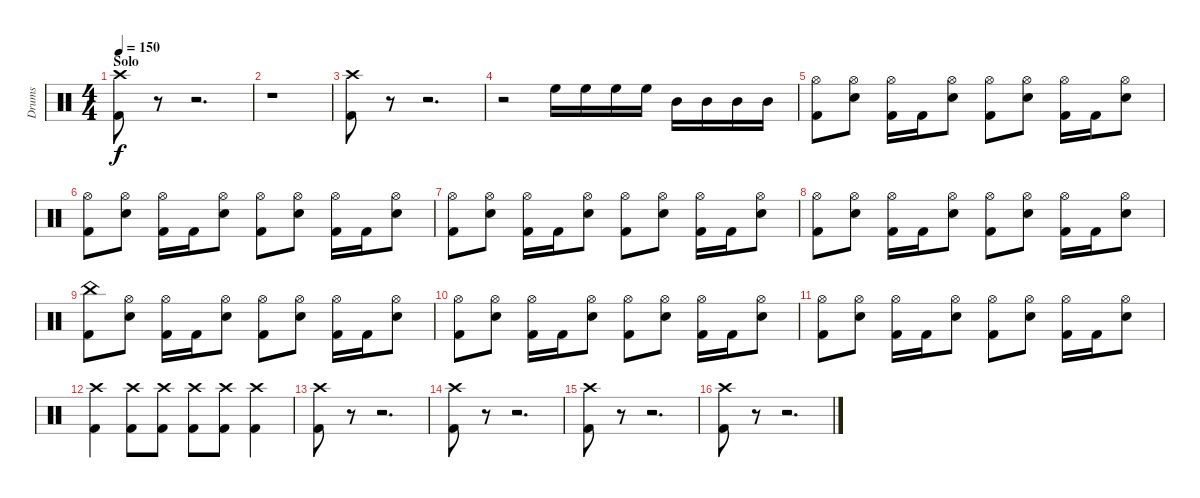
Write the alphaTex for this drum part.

\track ("Drums" "Drums") {instrument percussion}
\staff {score}
\articulation defaults
\ts (4 4)
\section ("" "Solo")
\tempo 150
\clef neutral
\ks c
("Crash high (hit)" "Kick (hit) 2").8{dy f} r.8 r.2{d} |
r.1 |
("Crash high (hit)" "Kick (hit) 2").8 r.8 r.2{d} |
r.2 "High Floor Tom (hit)".16 "High Floor Tom (hit)".16 "High Floor Tom (hit)".16 "High Floor Tom (hit)".16 "Mid Tom (hit)".16 "Mid Tom (hit)".16 "Mid Tom (hit)".16 "Mid Tom (hit)".16 |
("Hi-Hat (open)" "Kick (hit) 2").8 ("Hi-Hat (open)" "Snare (hit) 2").8 ("Hi-Hat (open)" "Kick (hit) 2").16 "Kick (hit) 2".16 ("Hi-Hat (open)" "Snare (hit) 2").8 ("Hi-Hat (open)" "Kick (hit) 2").8 ("Hi-Hat (open)" "Snare (hit) 2").8 ("Hi-Hat (open)" "Kick (hit) 2").16 "Kick (hit) 2".16 ("Hi-Hat (open)" "Snare (hit) 2").8 |
("Hi-Hat (open)" "Kick (hit) 2").8 ("Hi-Hat (open)" "Snare (hit) 2").8 ("Hi-Hat (open)" "Kick (hit) 2").16 "Kick (hit) 2".16 ("Hi-Hat (open)" "Snare (hit) 2").8 ("Hi-Hat (open)" "Kick (hit) 2").8 ("Hi-Hat (open)" "Snare (hit) 2").8 ("Hi-Hat (open)" "Kick (hit) 2").16 "Kick (hit) 2".16 ("Hi-Hat (open)" "Snare (hit) 2").8 |
("Hi-Hat (open)" "Kick (hit) 2").8 ("Hi-Hat (open)" "Snare (hit) 2").8 ("Hi-Hat (open)" "Kick (hit) 2").16 "Kick (hit) 2".16 ("Hi-Hat (open)" "Snare (hit) 2").8 ("Hi-Hat (open)" "Kick (hit) 2").8 ("Hi-Hat (open)" "Snare (hit) 2").8 ("Hi-Hat (open)" "Kick (hit) 2").16 "Kick (hit) 2".16 ("Hi-Hat (open)" "Snare (hit) 2").8 |
("Hi-Hat (open)" "Kick (hit) 2").8 ("Hi-Hat (open)" "Snare (hit) 2").8 ("Hi-Hat (open)" "Kick (hit) 2").16 "Kick (hit) 2".16 ("Hi-Hat (open)" "Snare (hit) 2").8 ("Hi-Hat (open)" "Kick (hit) 2").8 ("Hi-Hat (open)" "Snare (hit) 2").8 ("Hi-Hat (open)" "Kick (hit) 2").16 "Kick (hit) 2".16 ("Hi-Hat (open)" "Snare (hit) 2").8 |
("China (hit)" "Kick (hit) 2").8 ("Hi-Hat (open)" "Snare (hit) 2").8 ("Hi-Hat (open)" "Kick (hit) 2").16 "Kick (hit) 2".16 ("Hi-Hat (open)" "Snare (hit) 2").8 ("Hi-Hat (open)" "Kick (hit) 2").8 ("Hi-Hat (open)" "Snare (hit) 2").8 ("Hi-Hat (open)" "Kick (hit) 2").16 "Kick (hit) 2".16 ("Hi-Hat (open)" "Snare (hit) 2").8 |
("Hi-Hat (open)" "Kick (hit) 2").8 ("Hi-Hat (open)" "Snare (hit) 2").8 ("Hi-Hat (open)" "Kick (hit) 2").16 "Kick (hit) 2".16 ("Hi-Hat (open)" "Snare (hit) 2").8 ("Hi-Hat (open)" "Kick (hit) 2").8 ("Hi-Hat (open)" "Snare (hit) 2").8 ("Hi-Hat (open)" "Kick (hit) 2").16 "Kick (hit) 2".16 ("Hi-Hat (open)" "Snare (hit) 2").8 |
("Hi-Hat (open)" "Kick (hit) 2").8 ("Hi-Hat (open)" "Snare (hit) 2").8 ("Hi-Hat (open)" "Kick (hit) 2").16 "Kick (hit) 2".16 ("Hi-Hat (open)" "Snare (hit) 2").8 ("Hi-Hat (open)" "Kick (hit) 2").8 ("Hi-Hat (open)" "Snare (hit) 2").8 ("Hi-Hat (open)" "Kick (hit) 2").16 "Kick (hit) 2".16 ("Hi-Hat (open)" "Snare (hit) 2").8 |
("Crash high (hit)" "Kick (hit) 2").4 ("Crash high (hit)" "Kick (hit) 2").8 ("Crash high (hit)" "Kick (hit) 2").8 ("Crash high (hit)" "Kick (hit) 2").8 ("Crash high (hit)" "Kick (hit) 2").8 ("Crash high (hit)" "Kick (hit) 2").4 |
("Crash high (hit)" "Kick (hit) 2").8 r.8 r.2{d} |
("Crash high (hit)" "Kick (hit) 2").8 r.8 r.2{d} |
("Crash high (hit)" "Kick (hit) 2").8 r.8 r.2{d} |
("Crash high (hit)" "Kick (hit) 2").8 r.8 r.2{d}
